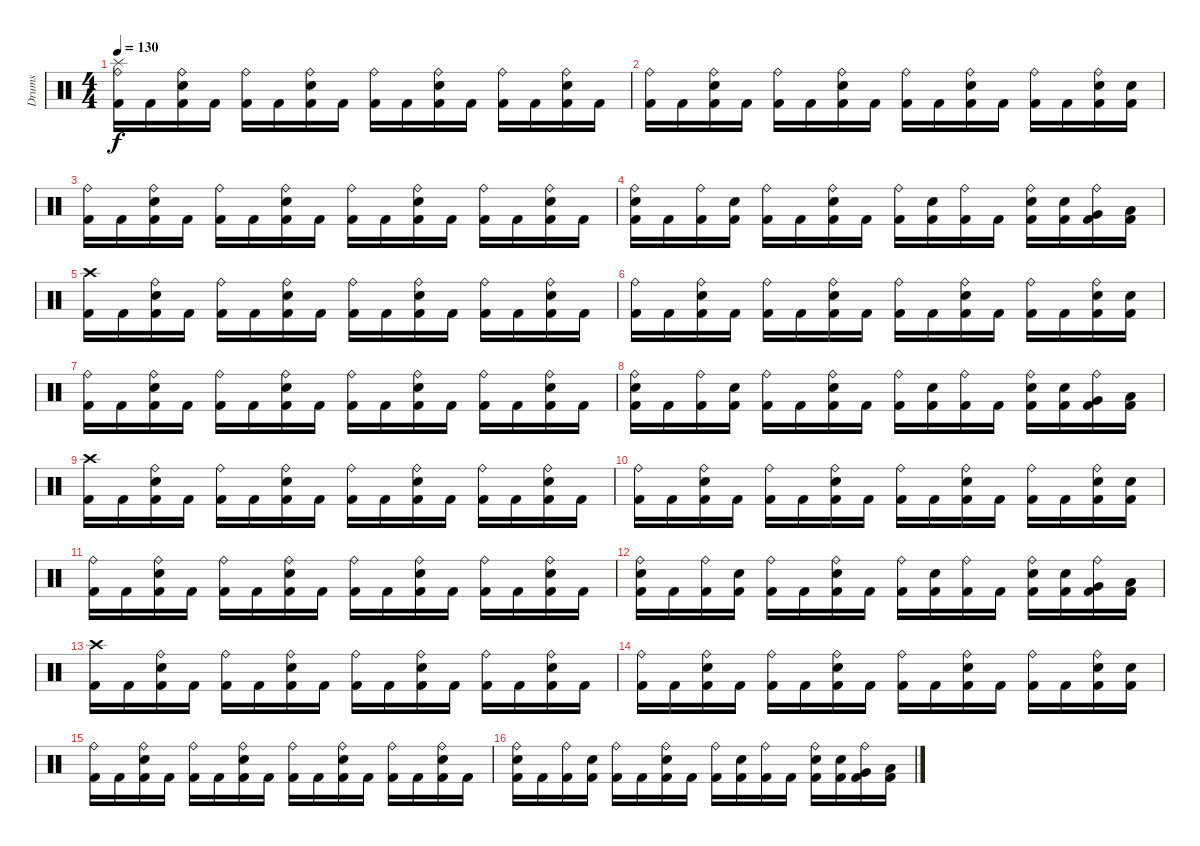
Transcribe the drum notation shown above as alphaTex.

\track ("Drums" "Drums") {instrument percussion}
\staff {score}
\articulation defaults
\ts (4 4)
\tempo 130
\clef neutral
\ks c
("Splash (hit)" "Ride (bell)" "Kick (hit) 2").16{dy f} "Kick (hit) 2".16 ("Ride (bell)" "Electric Snare (hit)" "Kick (hit) 2").16 "Kick (hit) 2".16 ("Ride (bell)" "Kick (hit) 2").16 "Kick (hit) 2".16 ("Ride (bell)" "Electric Snare (hit)" "Kick (hit) 2").16 "Kick (hit) 2".16 ("Ride (bell)" "Kick (hit) 2").16 "Kick (hit) 2".16 ("Ride (bell)" "Electric Snare (hit)" "Kick (hit) 2").16 "Kick (hit) 2".16 ("Ride (bell)" "Kick (hit) 2").16 "Kick (hit) 2".16 ("Ride (bell)" "Electric Snare (hit)" "Kick (hit) 2").16 "Kick (hit) 2".16 |
("Ride (bell)" "Kick (hit) 2").16 "Kick (hit) 2".16 ("Ride (bell)" "Electric Snare (hit)" "Kick (hit) 2").16 "Kick (hit) 2".16 ("Ride (bell)" "Kick (hit) 2").16 "Kick (hit) 2".16 ("Ride (bell)" "Electric Snare (hit)" "Kick (hit) 2").16 "Kick (hit) 2".16 ("Ride (bell)" "Kick (hit) 2").16 "Kick (hit) 2".16 ("Ride (bell)" "Electric Snare (hit)" "Kick (hit) 2").16 "Kick (hit) 2".16 ("Ride (bell)" "Kick (hit) 2").16 "Kick (hit) 2".16 ("Ride (bell)" "Electric Snare (hit)" "Kick (hit) 2").16 ("Electric Snare (hit)" "Kick (hit) 2").16 |
("Ride (bell)" "Kick (hit) 2").16 "Kick (hit) 2".16 ("Ride (bell)" "Electric Snare (hit)" "Kick (hit) 2").16 "Kick (hit) 2".16 ("Ride (bell)" "Kick (hit) 2").16 "Kick (hit) 2".16 ("Ride (bell)" "Electric Snare (hit)" "Kick (hit) 2").16 "Kick (hit) 2".16 ("Ride (bell)" "Kick (hit) 2").16 "Kick (hit) 2".16 ("Ride (bell)" "Electric Snare (hit)" "Kick (hit) 2").16 "Kick (hit) 2".16 ("Ride (bell)" "Kick (hit) 2").16 "Kick (hit) 2".16 ("Ride (bell)" "Electric Snare (hit)" "Kick (hit) 2").16 "Kick (hit) 2".16 |
("Ride (bell)" "Electric Snare (hit)" "Kick (hit) 2").16 "Kick (hit) 2".16 ("Ride (bell)" "Kick (hit) 2").16 ("Electric Snare (hit)" "Kick (hit) 2").16 ("Ride (bell)" "Kick (hit) 2").16 "Kick (hit) 2".16 ("Ride (bell)" "Electric Snare (hit)" "Kick (hit) 2").16 "Kick (hit) 2".16 ("Ride (bell)" "Kick (hit) 2").16 ("Electric Snare (hit)" "Kick (hit) 2").16 ("Ride (bell)" "Kick (hit) 2").16 "Kick (hit) 2".16 ("Ride (bell)" "Electric Snare (hit)" "Kick (hit) 2").16 ("Electric Snare (hit)" "Kick (hit) 2").16 ("Ride (bell)" "Very Low Tom (hit)" "Kick (hit) 2").16 ("Low Floor Tom (hit)" "Kick (hit) 2").16 |
("Crash high (hit)" "Kick (hit) 2").16 "Kick (hit) 2".16 ("Ride (bell)" "Electric Snare (hit)" "Kick (hit) 2").16 "Kick (hit) 2".16 ("Ride (bell)" "Kick (hit) 2").16 "Kick (hit) 2".16 ("Ride (bell)" "Electric Snare (hit)" "Kick (hit) 2").16 "Kick (hit) 2".16 ("Ride (bell)" "Kick (hit) 2").16 "Kick (hit) 2".16 ("Ride (bell)" "Electric Snare (hit)" "Kick (hit) 2").16 "Kick (hit) 2".16 ("Ride (bell)" "Kick (hit) 2").16 "Kick (hit) 2".16 ("Ride (bell)" "Electric Snare (hit)" "Kick (hit) 2").16 "Kick (hit) 2".16 |
("Ride (bell)" "Kick (hit) 2").16 "Kick (hit) 2".16 ("Ride (bell)" "Electric Snare (hit)" "Kick (hit) 2").16 "Kick (hit) 2".16 ("Ride (bell)" "Kick (hit) 2").16 "Kick (hit) 2".16 ("Ride (bell)" "Electric Snare (hit)" "Kick (hit) 2").16 "Kick (hit) 2".16 ("Ride (bell)" "Kick (hit) 2").16 "Kick (hit) 2".16 ("Ride (bell)" "Electric Snare (hit)" "Kick (hit) 2").16 "Kick (hit) 2".16 ("Ride (bell)" "Kick (hit) 2").16 "Kick (hit) 2".16 ("Ride (bell)" "Electric Snare (hit)" "Kick (hit) 2").16 ("Electric Snare (hit)" "Kick (hit) 2").16 |
("Ride (bell)" "Kick (hit) 2").16 "Kick (hit) 2".16 ("Ride (bell)" "Electric Snare (hit)" "Kick (hit) 2").16 "Kick (hit) 2".16 ("Ride (bell)" "Kick (hit) 2").16 "Kick (hit) 2".16 ("Ride (bell)" "Electric Snare (hit)" "Kick (hit) 2").16 "Kick (hit) 2".16 ("Ride (bell)" "Kick (hit) 2").16 "Kick (hit) 2".16 ("Ride (bell)" "Electric Snare (hit)" "Kick (hit) 2").16 "Kick (hit) 2".16 ("Ride (bell)" "Kick (hit) 2").16 "Kick (hit) 2".16 ("Ride (bell)" "Electric Snare (hit)" "Kick (hit) 2").16 "Kick (hit) 2".16 |
("Ride (bell)" "Electric Snare (hit)" "Kick (hit) 2").16 "Kick (hit) 2".16 ("Ride (bell)" "Kick (hit) 2").16 ("Electric Snare (hit)" "Kick (hit) 2").16 ("Ride (bell)" "Kick (hit) 2").16 "Kick (hit) 2".16 ("Ride (bell)" "Electric Snare (hit)" "Kick (hit) 2").16 "Kick (hit) 2".16 ("Ride (bell)" "Kick (hit) 2").16 ("Electric Snare (hit)" "Kick (hit) 2").16 ("Ride (bell)" "Kick (hit) 2").16 "Kick (hit) 2".16 ("Ride (bell)" "Electric Snare (hit)" "Kick (hit) 2").16 ("Electric Snare (hit)" "Kick (hit) 2").16 ("Ride (bell)" "Very Low Tom (hit)" "Kick (hit) 2").16 ("Low Floor Tom (hit)" "Kick (hit) 2").16 |
("Crash high (hit)" "Kick (hit) 2").16 "Kick (hit) 2".16 ("Ride (bell)" "Electric Snare (hit)" "Kick (hit) 2").16 "Kick (hit) 2".16 ("Ride (bell)" "Kick (hit) 2").16 "Kick (hit) 2".16 ("Ride (bell)" "Electric Snare (hit)" "Kick (hit) 2").16 "Kick (hit) 2".16 ("Ride (bell)" "Kick (hit) 2").16 "Kick (hit) 2".16 ("Ride (bell)" "Electric Snare (hit)" "Kick (hit) 2").16 "Kick (hit) 2".16 ("Ride (bell)" "Kick (hit) 2").16 "Kick (hit) 2".16 ("Ride (bell)" "Electric Snare (hit)" "Kick (hit) 2").16 "Kick (hit) 2".16 |
("Ride (bell)" "Kick (hit) 2").16 "Kick (hit) 2".16 ("Ride (bell)" "Electric Snare (hit)" "Kick (hit) 2").16 "Kick (hit) 2".16 ("Ride (bell)" "Kick (hit) 2").16 "Kick (hit) 2".16 ("Ride (bell)" "Electric Snare (hit)" "Kick (hit) 2").16 "Kick (hit) 2".16 ("Ride (bell)" "Kick (hit) 2").16 "Kick (hit) 2".16 ("Ride (bell)" "Electric Snare (hit)" "Kick (hit) 2").16 "Kick (hit) 2".16 ("Ride (bell)" "Kick (hit) 2").16 "Kick (hit) 2".16 ("Ride (bell)" "Electric Snare (hit)" "Kick (hit) 2").16 ("Electric Snare (hit)" "Kick (hit) 2").16 |
("Ride (bell)" "Kick (hit) 2").16 "Kick (hit) 2".16 ("Ride (bell)" "Electric Snare (hit)" "Kick (hit) 2").16 "Kick (hit) 2".16 ("Ride (bell)" "Kick (hit) 2").16 "Kick (hit) 2".16 ("Ride (bell)" "Electric Snare (hit)" "Kick (hit) 2").16 "Kick (hit) 2".16 ("Ride (bell)" "Kick (hit) 2").16 "Kick (hit) 2".16 ("Ride (bell)" "Electric Snare (hit)" "Kick (hit) 2").16 "Kick (hit) 2".16 ("Ride (bell)" "Kick (hit) 2").16 "Kick (hit) 2".16 ("Ride (bell)" "Electric Snare (hit)" "Kick (hit) 2").16 "Kick (hit) 2".16 |
("Ride (bell)" "Electric Snare (hit)" "Kick (hit) 2").16 "Kick (hit) 2".16 ("Ride (bell)" "Kick (hit) 2").16 ("Electric Snare (hit)" "Kick (hit) 2").16 ("Ride (bell)" "Kick (hit) 2").16 "Kick (hit) 2".16 ("Ride (bell)" "Electric Snare (hit)" "Kick (hit) 2").16 "Kick (hit) 2".16 ("Ride (bell)" "Kick (hit) 2").16 ("Electric Snare (hit)" "Kick (hit) 2").16 ("Ride (bell)" "Kick (hit) 2").16 "Kick (hit) 2".16 ("Ride (bell)" "Electric Snare (hit)" "Kick (hit) 2").16 ("Electric Snare (hit)" "Kick (hit) 2").16 ("Ride (bell)" "Very Low Tom (hit)" "Kick (hit) 2").16 ("Low Floor Tom (hit)" "Kick (hit) 2").16 |
("Crash high (hit)" "Kick (hit) 2").16 "Kick (hit) 2".16 ("Ride (bell)" "Electric Snare (hit)" "Kick (hit) 2").16 "Kick (hit) 2".16 ("Ride (bell)" "Kick (hit) 2").16 "Kick (hit) 2".16 ("Ride (bell)" "Electric Snare (hit)" "Kick (hit) 2").16 "Kick (hit) 2".16 ("Ride (bell)" "Kick (hit) 2").16 "Kick (hit) 2".16 ("Ride (bell)" "Electric Snare (hit)" "Kick (hit) 2").16 "Kick (hit) 2".16 ("Ride (bell)" "Kick (hit) 2").16 "Kick (hit) 2".16 ("Ride (bell)" "Electric Snare (hit)" "Kick (hit) 2").16 "Kick (hit) 2".16 |
("Ride (bell)" "Kick (hit) 2").16 "Kick (hit) 2".16 ("Ride (bell)" "Electric Snare (hit)" "Kick (hit) 2").16 "Kick (hit) 2".16 ("Ride (bell)" "Kick (hit) 2").16 "Kick (hit) 2".16 ("Ride (bell)" "Electric Snare (hit)" "Kick (hit) 2").16 "Kick (hit) 2".16 ("Ride (bell)" "Kick (hit) 2").16 "Kick (hit) 2".16 ("Ride (bell)" "Electric Snare (hit)" "Kick (hit) 2").16 "Kick (hit) 2".16 ("Ride (bell)" "Kick (hit) 2").16 "Kick (hit) 2".16 ("Ride (bell)" "Electric Snare (hit)" "Kick (hit) 2").16 ("Electric Snare (hit)" "Kick (hit) 2").16 |
("Ride (bell)" "Kick (hit) 2").16 "Kick (hit) 2".16 ("Ride (bell)" "Electric Snare (hit)" "Kick (hit) 2").16 "Kick (hit) 2".16 ("Ride (bell)" "Kick (hit) 2").16 "Kick (hit) 2".16 ("Ride (bell)" "Electric Snare (hit)" "Kick (hit) 2").16 "Kick (hit) 2".16 ("Ride (bell)" "Kick (hit) 2").16 "Kick (hit) 2".16 ("Ride (bell)" "Electric Snare (hit)" "Kick (hit) 2").16 "Kick (hit) 2".16 ("Ride (bell)" "Kick (hit) 2").16 "Kick (hit) 2".16 ("Ride (bell)" "Electric Snare (hit)" "Kick (hit) 2").16 "Kick (hit) 2".16 |
("Ride (bell)" "Electric Snare (hit)" "Kick (hit) 2").16 "Kick (hit) 2".16 ("Ride (bell)" "Kick (hit) 2").16 ("Electric Snare (hit)" "Kick (hit) 2").16 ("Ride (bell)" "Kick (hit) 2").16 "Kick (hit) 2".16 ("Ride (bell)" "Electric Snare (hit)" "Kick (hit) 2").16 "Kick (hit) 2".16 ("Ride (bell)" "Kick (hit) 2").16 ("Electric Snare (hit)" "Kick (hit) 2").16 ("Ride (bell)" "Kick (hit) 2").16 "Kick (hit) 2".16 ("Ride (bell)" "Electric Snare (hit)" "Kick (hit) 2").16 ("Electric Snare (hit)" "Kick (hit) 2").16 ("Ride (bell)" "Very Low Tom (hit)" "Kick (hit) 2").16 ("Low Floor Tom (hit)" "Kick (hit) 2").16
